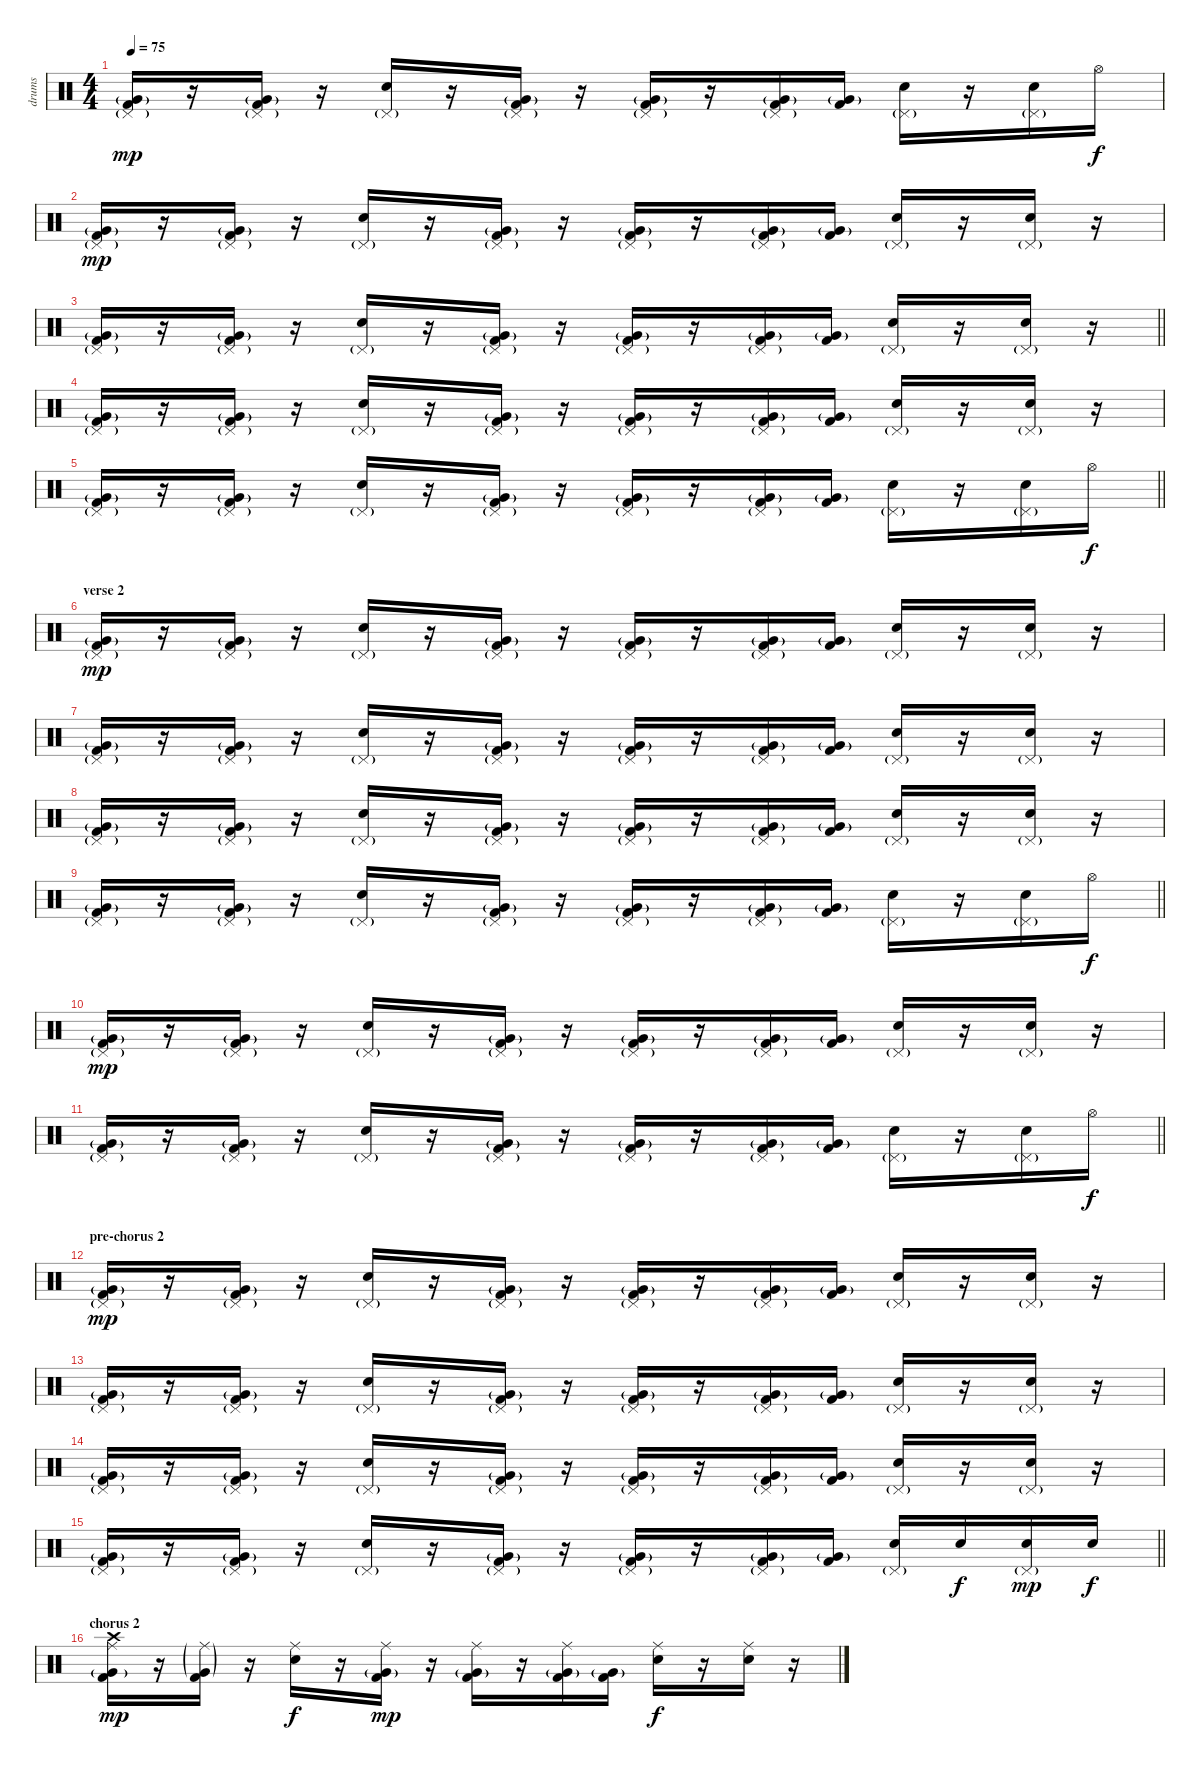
\track ("drums" "drums") {instrument percussion}
\staff {score}
\articulation defaults
\ts (4 4)
\tempo 75
\clef neutral
\ks c
("Kick (hit) 2" "Very Low Tom (hit)"{g} "Pedal Hi-Hat (hit)"{g}).16{dy mp} r.16 ("Kick (hit) 2" "Very Low Tom (hit)"{g} "Pedal Hi-Hat (hit)"{g}).16 r.16 ("Electric Snare (hit)" "Pedal Hi-Hat (hit)"{g}).16 r.16 ("Kick (hit) 2" "Very Low Tom (hit)"{g} "Pedal Hi-Hat (hit)"{g}).16 r.16 ("Kick (hit) 2" "Very Low Tom (hit)"{g} "Pedal Hi-Hat (hit)"{g}).16 r.16 ("Kick (hit) 2" "Very Low Tom (hit)"{g} "Pedal Hi-Hat (hit)"{g}).16 ("Kick (hit) 2" "Very Low Tom (hit)"{g}).16 ("Electric Snare (hit)" "Pedal Hi-Hat (hit)"{g}).16 r.16 ("Electric Snare (hit)" "Pedal Hi-Hat (hit)"{g}).16 "Hi-Hat (open)".16{dy f} |
("Kick (hit) 2" "Very Low Tom (hit)"{g} "Pedal Hi-Hat (hit)"{g}).16{dy mp} r.16 ("Kick (hit) 2" "Very Low Tom (hit)"{g} "Pedal Hi-Hat (hit)"{g}).16 r.16 ("Electric Snare (hit)" "Pedal Hi-Hat (hit)"{g}).16 r.16 ("Kick (hit) 2" "Very Low Tom (hit)"{g} "Pedal Hi-Hat (hit)"{g}).16 r.16 ("Kick (hit) 2" "Very Low Tom (hit)"{g} "Pedal Hi-Hat (hit)"{g}).16 r.16 ("Kick (hit) 2" "Very Low Tom (hit)"{g} "Pedal Hi-Hat (hit)"{g}).16 ("Kick (hit) 2" "Very Low Tom (hit)"{g}).16 ("Electric Snare (hit)" "Pedal Hi-Hat (hit)"{g}).16 r.16 ("Electric Snare (hit)" "Pedal Hi-Hat (hit)"{g}).16 r.16 |
\barLineRight lightlight
("Kick (hit) 2" "Very Low Tom (hit)"{g} "Pedal Hi-Hat (hit)"{g}).16 r.16 ("Kick (hit) 2" "Very Low Tom (hit)"{g} "Pedal Hi-Hat (hit)"{g}).16 r.16 ("Electric Snare (hit)" "Pedal Hi-Hat (hit)"{g}).16 r.16 ("Kick (hit) 2" "Very Low Tom (hit)"{g} "Pedal Hi-Hat (hit)"{g}).16 r.16 ("Kick (hit) 2" "Very Low Tom (hit)"{g} "Pedal Hi-Hat (hit)"{g}).16 r.16 ("Kick (hit) 2" "Very Low Tom (hit)"{g} "Pedal Hi-Hat (hit)"{g}).16 ("Kick (hit) 2" "Very Low Tom (hit)"{g}).16 ("Electric Snare (hit)" "Pedal Hi-Hat (hit)"{g}).16 r.16 ("Electric Snare (hit)" "Pedal Hi-Hat (hit)"{g}).16 r.16 |
("Kick (hit) 2" "Very Low Tom (hit)"{g} "Pedal Hi-Hat (hit)"{g}).16 r.16 ("Kick (hit) 2" "Very Low Tom (hit)"{g} "Pedal Hi-Hat (hit)"{g}).16 r.16 ("Electric Snare (hit)" "Pedal Hi-Hat (hit)"{g}).16 r.16 ("Kick (hit) 2" "Very Low Tom (hit)"{g} "Pedal Hi-Hat (hit)"{g}).16 r.16 ("Kick (hit) 2" "Very Low Tom (hit)"{g} "Pedal Hi-Hat (hit)"{g}).16 r.16 ("Kick (hit) 2" "Very Low Tom (hit)"{g} "Pedal Hi-Hat (hit)"{g}).16 ("Kick (hit) 2" "Very Low Tom (hit)"{g}).16 ("Electric Snare (hit)" "Pedal Hi-Hat (hit)"{g}).16 r.16 ("Electric Snare (hit)" "Pedal Hi-Hat (hit)"{g}).16 r.16 |
\barLineRight lightlight
("Kick (hit) 2" "Very Low Tom (hit)"{g} "Pedal Hi-Hat (hit)"{g}).16 r.16 ("Kick (hit) 2" "Very Low Tom (hit)"{g} "Pedal Hi-Hat (hit)"{g}).16 r.16 ("Electric Snare (hit)" "Pedal Hi-Hat (hit)"{g}).16 r.16 ("Kick (hit) 2" "Very Low Tom (hit)"{g} "Pedal Hi-Hat (hit)"{g}).16 r.16 ("Kick (hit) 2" "Very Low Tom (hit)"{g} "Pedal Hi-Hat (hit)"{g}).16 r.16 ("Kick (hit) 2" "Very Low Tom (hit)"{g} "Pedal Hi-Hat (hit)"{g}).16 ("Kick (hit) 2" "Very Low Tom (hit)"{g}).16 ("Electric Snare (hit)" "Pedal Hi-Hat (hit)"{g}).16 r.16 ("Electric Snare (hit)" "Pedal Hi-Hat (hit)"{g}).16 "Hi-Hat (open)".16{dy f} |
\section ("" "verse 2")
("Kick (hit) 2" "Very Low Tom (hit)"{g} "Pedal Hi-Hat (hit)"{g}).16{dy mp} r.16 ("Kick (hit) 2" "Very Low Tom (hit)"{g} "Pedal Hi-Hat (hit)"{g}).16 r.16 ("Electric Snare (hit)" "Pedal Hi-Hat (hit)"{g}).16 r.16 ("Kick (hit) 2" "Very Low Tom (hit)"{g} "Pedal Hi-Hat (hit)"{g}).16 r.16 ("Kick (hit) 2" "Very Low Tom (hit)"{g} "Pedal Hi-Hat (hit)"{g}).16 r.16 ("Kick (hit) 2" "Very Low Tom (hit)"{g} "Pedal Hi-Hat (hit)"{g}).16 ("Kick (hit) 2" "Very Low Tom (hit)"{g}).16 ("Electric Snare (hit)" "Pedal Hi-Hat (hit)"{g}).16 r.16 ("Electric Snare (hit)" "Pedal Hi-Hat (hit)"{g}).16 r.16 |
("Kick (hit) 2" "Very Low Tom (hit)"{g} "Pedal Hi-Hat (hit)"{g}).16 r.16 ("Kick (hit) 2" "Very Low Tom (hit)"{g} "Pedal Hi-Hat (hit)"{g}).16 r.16 ("Electric Snare (hit)" "Pedal Hi-Hat (hit)"{g}).16 r.16 ("Kick (hit) 2" "Very Low Tom (hit)"{g} "Pedal Hi-Hat (hit)"{g}).16 r.16 ("Kick (hit) 2" "Very Low Tom (hit)"{g} "Pedal Hi-Hat (hit)"{g}).16 r.16 ("Kick (hit) 2" "Very Low Tom (hit)"{g} "Pedal Hi-Hat (hit)"{g}).16 ("Kick (hit) 2" "Very Low Tom (hit)"{g}).16 ("Electric Snare (hit)" "Pedal Hi-Hat (hit)"{g}).16 r.16 ("Electric Snare (hit)" "Pedal Hi-Hat (hit)"{g}).16 r.16 |
("Kick (hit) 2" "Very Low Tom (hit)"{g} "Pedal Hi-Hat (hit)"{g}).16 r.16 ("Kick (hit) 2" "Very Low Tom (hit)"{g} "Pedal Hi-Hat (hit)"{g}).16 r.16 ("Electric Snare (hit)" "Pedal Hi-Hat (hit)"{g}).16 r.16 ("Kick (hit) 2" "Very Low Tom (hit)"{g} "Pedal Hi-Hat (hit)"{g}).16 r.16 ("Kick (hit) 2" "Very Low Tom (hit)"{g} "Pedal Hi-Hat (hit)"{g}).16 r.16 ("Kick (hit) 2" "Very Low Tom (hit)"{g} "Pedal Hi-Hat (hit)"{g}).16 ("Kick (hit) 2" "Very Low Tom (hit)"{g}).16 ("Electric Snare (hit)" "Pedal Hi-Hat (hit)"{g}).16 r.16 ("Electric Snare (hit)" "Pedal Hi-Hat (hit)"{g}).16 r.16 |
\barLineRight lightlight
("Kick (hit) 2" "Very Low Tom (hit)"{g} "Pedal Hi-Hat (hit)"{g}).16 r.16 ("Kick (hit) 2" "Very Low Tom (hit)"{g} "Pedal Hi-Hat (hit)"{g}).16 r.16 ("Electric Snare (hit)" "Pedal Hi-Hat (hit)"{g}).16 r.16 ("Kick (hit) 2" "Very Low Tom (hit)"{g} "Pedal Hi-Hat (hit)"{g}).16 r.16 ("Kick (hit) 2" "Very Low Tom (hit)"{g} "Pedal Hi-Hat (hit)"{g}).16 r.16 ("Kick (hit) 2" "Very Low Tom (hit)"{g} "Pedal Hi-Hat (hit)"{g}).16 ("Kick (hit) 2" "Very Low Tom (hit)"{g}).16 ("Electric Snare (hit)" "Pedal Hi-Hat (hit)"{g}).16 r.16 ("Electric Snare (hit)" "Pedal Hi-Hat (hit)"{g}).16 "Hi-Hat (open)".16{dy f} |
("Kick (hit) 2" "Very Low Tom (hit)"{g} "Pedal Hi-Hat (hit)"{g}).16{dy mp} r.16 ("Kick (hit) 2" "Very Low Tom (hit)"{g} "Pedal Hi-Hat (hit)"{g}).16 r.16 ("Electric Snare (hit)" "Pedal Hi-Hat (hit)"{g}).16 r.16 ("Kick (hit) 2" "Very Low Tom (hit)"{g} "Pedal Hi-Hat (hit)"{g}).16 r.16 ("Kick (hit) 2" "Very Low Tom (hit)"{g} "Pedal Hi-Hat (hit)"{g}).16 r.16 ("Kick (hit) 2" "Very Low Tom (hit)"{g} "Pedal Hi-Hat (hit)"{g}).16 ("Kick (hit) 2" "Very Low Tom (hit)"{g}).16 ("Electric Snare (hit)" "Pedal Hi-Hat (hit)"{g}).16 r.16 ("Electric Snare (hit)" "Pedal Hi-Hat (hit)"{g}).16 r.16 |
\barLineRight lightlight
("Kick (hit) 2" "Very Low Tom (hit)"{g} "Pedal Hi-Hat (hit)"{g}).16 r.16 ("Kick (hit) 2" "Very Low Tom (hit)"{g} "Pedal Hi-Hat (hit)"{g}).16 r.16 ("Electric Snare (hit)" "Pedal Hi-Hat (hit)"{g}).16 r.16 ("Kick (hit) 2" "Very Low Tom (hit)"{g} "Pedal Hi-Hat (hit)"{g}).16 r.16 ("Kick (hit) 2" "Very Low Tom (hit)"{g} "Pedal Hi-Hat (hit)"{g}).16 r.16 ("Kick (hit) 2" "Very Low Tom (hit)"{g} "Pedal Hi-Hat (hit)"{g}).16 ("Kick (hit) 2" "Very Low Tom (hit)"{g}).16 ("Electric Snare (hit)" "Pedal Hi-Hat (hit)"{g}).16 r.16 ("Electric Snare (hit)" "Pedal Hi-Hat (hit)"{g}).16 "Hi-Hat (open)".16{dy f} |
\section ("" "pre-chorus 2")
("Kick (hit) 2" "Very Low Tom (hit)"{g} "Pedal Hi-Hat (hit)"{g}).16{dy mp} r.16 ("Kick (hit) 2" "Very Low Tom (hit)"{g} "Pedal Hi-Hat (hit)"{g}).16 r.16 ("Electric Snare (hit)" "Pedal Hi-Hat (hit)"{g}).16 r.16 ("Kick (hit) 2" "Very Low Tom (hit)"{g} "Pedal Hi-Hat (hit)"{g}).16 r.16 ("Kick (hit) 2" "Very Low Tom (hit)"{g} "Pedal Hi-Hat (hit)"{g}).16 r.16 ("Kick (hit) 2" "Very Low Tom (hit)"{g} "Pedal Hi-Hat (hit)"{g}).16 ("Kick (hit) 2" "Very Low Tom (hit)"{g}).16 ("Electric Snare (hit)" "Pedal Hi-Hat (hit)"{g}).16 r.16 ("Electric Snare (hit)" "Pedal Hi-Hat (hit)"{g}).16 r.16 |
("Kick (hit) 2" "Very Low Tom (hit)"{g} "Pedal Hi-Hat (hit)"{g}).16 r.16 ("Kick (hit) 2" "Very Low Tom (hit)"{g} "Pedal Hi-Hat (hit)"{g}).16 r.16 ("Electric Snare (hit)" "Pedal Hi-Hat (hit)"{g}).16 r.16 ("Kick (hit) 2" "Very Low Tom (hit)"{g} "Pedal Hi-Hat (hit)"{g}).16 r.16 ("Kick (hit) 2" "Very Low Tom (hit)"{g} "Pedal Hi-Hat (hit)"{g}).16 r.16 ("Kick (hit) 2" "Very Low Tom (hit)"{g} "Pedal Hi-Hat (hit)"{g}).16 ("Kick (hit) 2" "Very Low Tom (hit)"{g}).16 ("Electric Snare (hit)" "Pedal Hi-Hat (hit)"{g}).16 r.16 ("Electric Snare (hit)" "Pedal Hi-Hat (hit)"{g}).16 r.16 |
("Kick (hit) 2" "Very Low Tom (hit)"{g} "Pedal Hi-Hat (hit)"{g}).16 r.16 ("Kick (hit) 2" "Very Low Tom (hit)"{g} "Pedal Hi-Hat (hit)"{g}).16 r.16 ("Electric Snare (hit)" "Pedal Hi-Hat (hit)"{g}).16 r.16 ("Kick (hit) 2" "Very Low Tom (hit)"{g} "Pedal Hi-Hat (hit)"{g}).16 r.16 ("Kick (hit) 2" "Very Low Tom (hit)"{g} "Pedal Hi-Hat (hit)"{g}).16 r.16 ("Kick (hit) 2" "Very Low Tom (hit)"{g} "Pedal Hi-Hat (hit)"{g}).16 ("Kick (hit) 2" "Very Low Tom (hit)"{g}).16 ("Electric Snare (hit)" "Pedal Hi-Hat (hit)"{g}).16 r.16 ("Electric Snare (hit)" "Pedal Hi-Hat (hit)"{g}).16 r.16 |
\barLineRight lightlight
("Kick (hit) 2" "Very Low Tom (hit)"{g} "Pedal Hi-Hat (hit)"{g}).16 r.16 ("Kick (hit) 2" "Very Low Tom (hit)"{g} "Pedal Hi-Hat (hit)"{g}).16 r.16 ("Electric Snare (hit)" "Pedal Hi-Hat (hit)"{g}).16 r.16 ("Kick (hit) 2" "Very Low Tom (hit)"{g} "Pedal Hi-Hat (hit)"{g}).16 r.16 ("Kick (hit) 2" "Very Low Tom (hit)"{g} "Pedal Hi-Hat (hit)"{g}).16 r.16 ("Kick (hit) 2" "Very Low Tom (hit)"{g} "Pedal Hi-Hat (hit)"{g}).16 ("Kick (hit) 2" "Very Low Tom (hit)"{g}).16 ("Electric Snare (hit)" "Pedal Hi-Hat (hit)"{g}).16 "Electric Snare (hit)".16{dy f} ("Electric Snare (hit)" "Pedal Hi-Hat (hit)"{g}).16{dy mp} "Electric Snare (hit)".16{dy f} |
\section ("" "chorus 2")
("Kick (hit) 2" "Very Low Tom (hit)"{g} "Ride (middle)" "Crash high (hit)").16{dy mp} r.16 ("Kick (hit) 2" "Very Low Tom (hit)"{g} "Ride (middle)"{g}).16 r.16 ("Electric Snare (hit)" "Ride (middle)").16{dy f} r.16 ("Kick (hit) 2" "Very Low Tom (hit)"{g} "Ride (middle)").16{dy mp} r.16 ("Kick (hit) 2" "Very Low Tom (hit)"{g} "Ride (middle)").16 r.16 ("Kick (hit) 2" "Very Low Tom (hit)"{g} "Ride (middle)").16 ("Kick (hit) 2" "Very Low Tom (hit)"{g}).16 ("Electric Snare (hit)" "Ride (middle)").16{dy f} r.16 ("Electric Snare (hit)" "Ride (middle)").16 r.16
